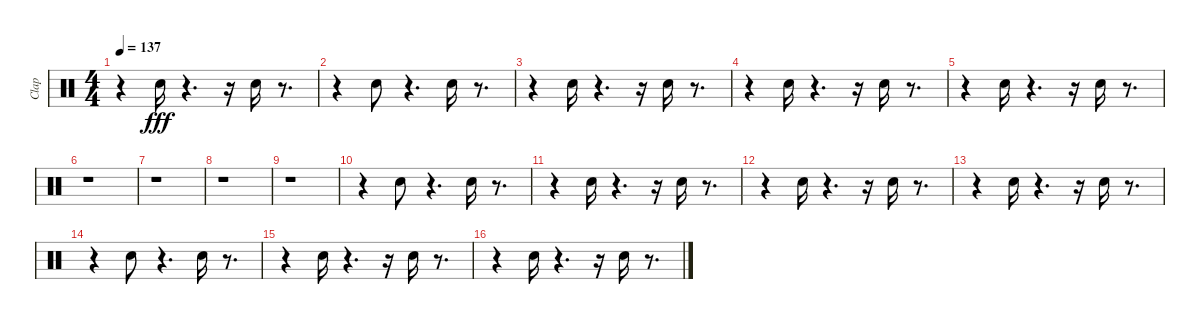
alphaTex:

\track ("Clap" "Clap") {instrument percussion}
\staff {score}
\articulation defaults
\ts (4 4)
\tempo 137
\clef neutral
\ks c
r.4{dy fff} "Hand Clap (hit)".16 r.4{d} r.16 "Hand Clap (hit)".16 r.8{d} |
r.4 "Hand Clap (hit)".8 r.4{d} "Hand Clap (hit)".16 r.8{d} |
r.4 "Hand Clap (hit)".16 r.4{d} r.16 "Hand Clap (hit)".16 r.8{d} |
r.4 "Hand Clap (hit)".16 r.4{d} r.16 "Hand Clap (hit)".16 r.8{d} |
r.4 "Hand Clap (hit)".16 r.4{d} r.16 "Hand Clap (hit)".16 r.8{d} |
r.1 |
r.1 |
r.1 |
r.1 |
r.4 "Hand Clap (hit)".8 r.4{d} "Hand Clap (hit)".16 r.8{d} |
r.4 "Hand Clap (hit)".16 r.4{d} r.16 "Hand Clap (hit)".16 r.8{d} |
r.4 "Hand Clap (hit)".16 r.4{d} r.16 "Hand Clap (hit)".16 r.8{d} |
r.4 "Hand Clap (hit)".16 r.4{d} r.16 "Hand Clap (hit)".16 r.8{d} |
r.4 "Hand Clap (hit)".8 r.4{d} "Hand Clap (hit)".16 r.8{d} |
r.4 "Hand Clap (hit)".16 r.4{d} r.16 "Hand Clap (hit)".16 r.8{d} |
r.4 "Hand Clap (hit)".16 r.4{d} r.16 "Hand Clap (hit)".16 r.8{d}
